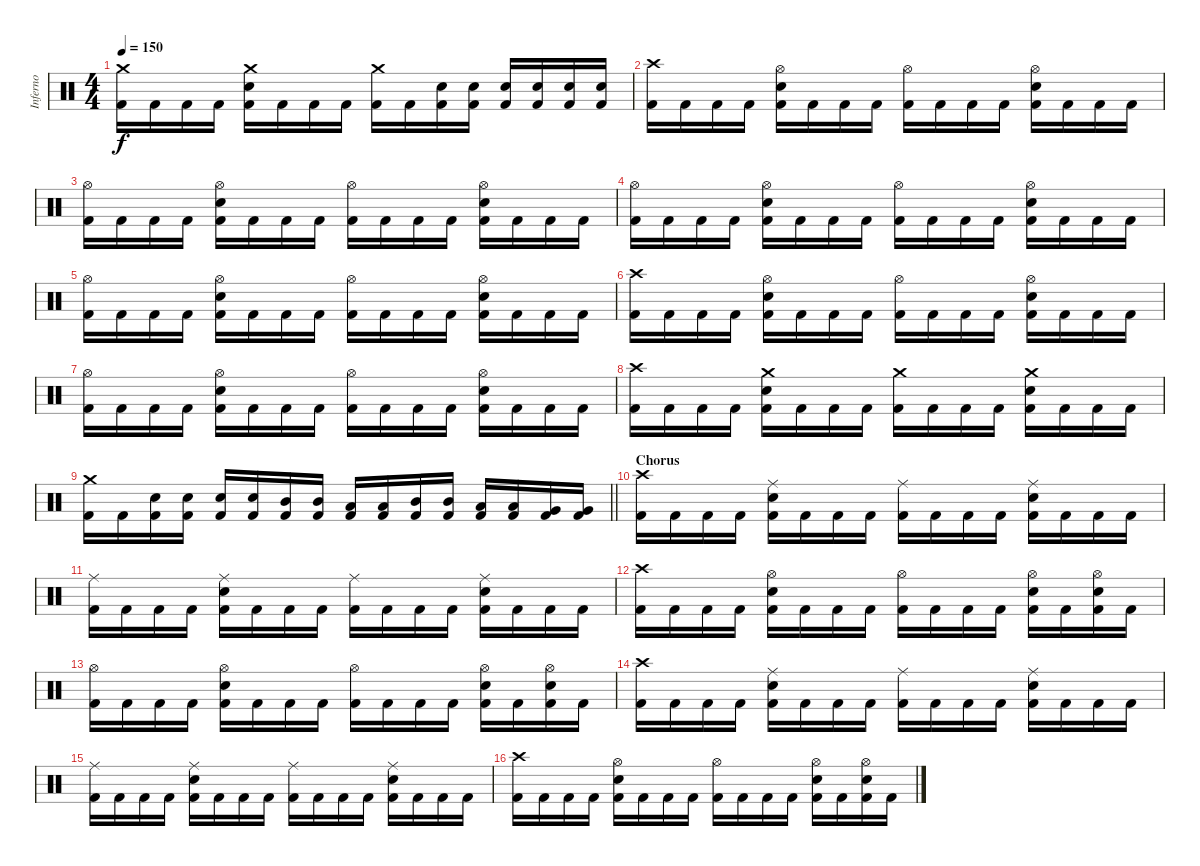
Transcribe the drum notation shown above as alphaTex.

\track ("Inferno" "Inferno") {instrument percussion}
\staff {score}
\articulation defaults
\ts (4 4)
\tempo 150
\clef neutral
\ks c
("Crash medium (hit)" "Kick (hit) 2").16{dy f} "Kick (hit) 2".16 "Kick (hit) 2".16 "Kick (hit) 2".16 ("Crash medium (hit)" "Electric Snare (hit)" "Kick (hit) 2").16 "Kick (hit) 2".16 "Kick (hit) 2".16 "Kick (hit) 2".16 ("Crash medium (hit)" "Kick (hit) 2").16 "Kick (hit) 2".16 ("Electric Snare (hit)" "Kick (hit) 2").16 ("Electric Snare (hit)" "Kick (hit) 2").16 ("Electric Snare (hit)" "Kick (hit) 2").16 ("Electric Snare (hit)" "Kick (hit) 2").16 ("Electric Snare (hit)" "Kick (hit) 2").16 ("Electric Snare (hit)" "Kick (hit) 2").16 |
("Crash high (hit)" "Kick (hit) 2").16 "Kick (hit) 2".16 "Kick (hit) 2".16 "Kick (hit) 2".16 ("Hi-Hat (open)" "Electric Snare (hit)" "Kick (hit) 2").16 "Kick (hit) 2".16 "Kick (hit) 2".16 "Kick (hit) 2".16 ("Hi-Hat (open)" "Kick (hit) 2").16 "Kick (hit) 2".16 "Kick (hit) 2".16 "Kick (hit) 2".16 ("Hi-Hat (open)" "Electric Snare (hit)" "Kick (hit) 2").16 "Kick (hit) 2".16 "Kick (hit) 2".16 "Kick (hit) 2".16 |
("Hi-Hat (open)" "Kick (hit) 2").16 "Kick (hit) 2".16 "Kick (hit) 2".16 "Kick (hit) 2".16 ("Hi-Hat (open)" "Electric Snare (hit)" "Kick (hit) 2").16 "Kick (hit) 2".16 "Kick (hit) 2".16 "Kick (hit) 2".16 ("Hi-Hat (open)" "Kick (hit) 2").16 "Kick (hit) 2".16 "Kick (hit) 2".16 "Kick (hit) 2".16 ("Hi-Hat (open)" "Electric Snare (hit)" "Kick (hit) 2").16 "Kick (hit) 2".16 "Kick (hit) 2".16 "Kick (hit) 2".16 |
("Hi-Hat (open)" "Kick (hit) 2").16 "Kick (hit) 2".16 "Kick (hit) 2".16 "Kick (hit) 2".16 ("Hi-Hat (open)" "Electric Snare (hit)" "Kick (hit) 2").16 "Kick (hit) 2".16 "Kick (hit) 2".16 "Kick (hit) 2".16 ("Hi-Hat (open)" "Kick (hit) 2").16 "Kick (hit) 2".16 "Kick (hit) 2".16 "Kick (hit) 2".16 ("Hi-Hat (open)" "Electric Snare (hit)" "Kick (hit) 2").16 "Kick (hit) 2".16 "Kick (hit) 2".16 "Kick (hit) 2".16 |
("Hi-Hat (open)" "Kick (hit) 2").16 "Kick (hit) 2".16 "Kick (hit) 2".16 "Kick (hit) 2".16 ("Hi-Hat (open)" "Electric Snare (hit)" "Kick (hit) 2").16 "Kick (hit) 2".16 "Kick (hit) 2".16 "Kick (hit) 2".16 ("Hi-Hat (open)" "Kick (hit) 2").16 "Kick (hit) 2".16 "Kick (hit) 2".16 "Kick (hit) 2".16 ("Hi-Hat (open)" "Electric Snare (hit)" "Kick (hit) 2").16 "Kick (hit) 2".16 "Kick (hit) 2".16 "Kick (hit) 2".16 |
("Crash high (hit)" "Kick (hit) 2").16 "Kick (hit) 2".16 "Kick (hit) 2".16 "Kick (hit) 2".16 ("Hi-Hat (open)" "Electric Snare (hit)" "Kick (hit) 2").16 "Kick (hit) 2".16 "Kick (hit) 2".16 "Kick (hit) 2".16 ("Hi-Hat (open)" "Kick (hit) 2").16 "Kick (hit) 2".16 "Kick (hit) 2".16 "Kick (hit) 2".16 ("Hi-Hat (open)" "Electric Snare (hit)" "Kick (hit) 2").16 "Kick (hit) 2".16 "Kick (hit) 2".16 "Kick (hit) 2".16 |
("Hi-Hat (open)" "Kick (hit) 2").16 "Kick (hit) 2".16 "Kick (hit) 2".16 "Kick (hit) 2".16 ("Hi-Hat (open)" "Electric Snare (hit)" "Kick (hit) 2").16 "Kick (hit) 2".16 "Kick (hit) 2".16 "Kick (hit) 2".16 ("Hi-Hat (open)" "Kick (hit) 2").16 "Kick (hit) 2".16 "Kick (hit) 2".16 "Kick (hit) 2".16 ("Hi-Hat (open)" "Electric Snare (hit)" "Kick (hit) 2").16 "Kick (hit) 2".16 "Kick (hit) 2".16 "Kick (hit) 2".16 |
("Crash high (hit)" "Kick (hit) 2").16 "Kick (hit) 2".16 "Kick (hit) 2".16 "Kick (hit) 2".16 ("Crash medium (hit)" "Electric Snare (hit)" "Kick (hit) 2").16 "Kick (hit) 2".16 "Kick (hit) 2".16 "Kick (hit) 2".16 ("Crash medium (hit)" "Kick (hit) 2").16 "Kick (hit) 2".16 "Kick (hit) 2".16 "Kick (hit) 2".16 ("Crash medium (hit)" "Electric Snare (hit)" "Kick (hit) 2").16 "Kick (hit) 2".16 "Kick (hit) 2".16 "Kick (hit) 2".16 |
\barLineRight lightlight
("Crash medium (hit)" "Kick (hit) 2").16 "Kick (hit) 2".16 ("Electric Snare (hit)" "Kick (hit) 2").16 ("Electric Snare (hit)" "Kick (hit) 2").16 ("Electric Snare (hit)" "Kick (hit) 2").16 ("Electric Snare (hit)" "Kick (hit) 2").16 ("Mid Tom (hit)" "Kick (hit) 2").16 ("Mid Tom (hit)" "Kick (hit) 2").16 ("Low Tom (hit)" "Kick (hit) 2").16 ("Low Tom (hit)" "Kick (hit) 2").16 ("Mid Tom (hit)" "Kick (hit) 2").16 ("Mid Tom (hit)" "Kick (hit) 2").16 ("Low Tom (hit)" "Kick (hit) 2").16 ("Low Tom (hit)" "Kick (hit) 2").16 ("Very Low Tom (hit)" "Kick (hit) 2").16 ("Very Low Tom (hit)" "Kick (hit) 2").16 |
\section ("" "Chorus")
("Crash high (hit)" "Kick (hit) 2").16 "Kick (hit) 2".16 "Kick (hit) 2".16 "Kick (hit) 2".16 ("Ride (middle)" "Electric Snare (hit)" "Kick (hit) 2").16 "Kick (hit) 2".16 "Kick (hit) 2".16 "Kick (hit) 2".16 ("Ride (middle)" "Kick (hit) 2").16 "Kick (hit) 2".16 "Kick (hit) 2".16 "Kick (hit) 2".16 ("Ride (middle)" "Electric Snare (hit)" "Kick (hit) 2").16 "Kick (hit) 2".16 "Kick (hit) 2".16 "Kick (hit) 2".16 |
("Ride (middle)" "Kick (hit) 2").16 "Kick (hit) 2".16 "Kick (hit) 2".16 "Kick (hit) 2".16 ("Ride (middle)" "Electric Snare (hit)" "Kick (hit) 2").16 "Kick (hit) 2".16 "Kick (hit) 2".16 "Kick (hit) 2".16 ("Ride (middle)" "Kick (hit) 2").16 "Kick (hit) 2".16 "Kick (hit) 2".16 "Kick (hit) 2".16 ("Ride (middle)" "Electric Snare (hit)" "Kick (hit) 2").16 "Kick (hit) 2".16 "Kick (hit) 2".16 "Kick (hit) 2".16 |
("Crash high (hit)" "Kick (hit) 2").16 "Kick (hit) 2".16 "Kick (hit) 2".16 "Kick (hit) 2".16 ("Hi-Hat (open)" "Electric Snare (hit)" "Kick (hit) 2").16 "Kick (hit) 2".16 "Kick (hit) 2".16 "Kick (hit) 2".16 ("Hi-Hat (open)" "Kick (hit) 2").16 "Kick (hit) 2".16 "Kick (hit) 2".16 "Kick (hit) 2".16 ("Hi-Hat (open)" "Electric Snare (hit)" "Kick (hit) 2").16 "Kick (hit) 2".16 ("Hi-Hat (open)" "Electric Snare (hit)" "Kick (hit) 2").16 "Kick (hit) 2".16 |
("Hi-Hat (open)" "Kick (hit) 2").16 "Kick (hit) 2".16 "Kick (hit) 2".16 "Kick (hit) 2".16 ("Hi-Hat (open)" "Electric Snare (hit)" "Kick (hit) 2").16 "Kick (hit) 2".16 "Kick (hit) 2".16 "Kick (hit) 2".16 ("Hi-Hat (open)" "Kick (hit) 2").16 "Kick (hit) 2".16 "Kick (hit) 2".16 "Kick (hit) 2".16 ("Hi-Hat (open)" "Electric Snare (hit)" "Kick (hit) 2").16 "Kick (hit) 2".16 ("Hi-Hat (open)" "Electric Snare (hit)" "Kick (hit) 2").16 "Kick (hit) 2".16 |
("Crash high (hit)" "Kick (hit) 2").16 "Kick (hit) 2".16 "Kick (hit) 2".16 "Kick (hit) 2".16 ("Ride (middle)" "Electric Snare (hit)" "Kick (hit) 2").16 "Kick (hit) 2".16 "Kick (hit) 2".16 "Kick (hit) 2".16 ("Ride (middle)" "Kick (hit) 2").16 "Kick (hit) 2".16 "Kick (hit) 2".16 "Kick (hit) 2".16 ("Ride (middle)" "Electric Snare (hit)" "Kick (hit) 2").16 "Kick (hit) 2".16 "Kick (hit) 2".16 "Kick (hit) 2".16 |
("Ride (middle)" "Kick (hit) 2").16 "Kick (hit) 2".16 "Kick (hit) 2".16 "Kick (hit) 2".16 ("Ride (middle)" "Electric Snare (hit)" "Kick (hit) 2").16 "Kick (hit) 2".16 "Kick (hit) 2".16 "Kick (hit) 2".16 ("Ride (middle)" "Kick (hit) 2").16 "Kick (hit) 2".16 "Kick (hit) 2".16 "Kick (hit) 2".16 ("Ride (middle)" "Electric Snare (hit)" "Kick (hit) 2").16 "Kick (hit) 2".16 "Kick (hit) 2".16 "Kick (hit) 2".16 |
("Crash high (hit)" "Kick (hit) 2").16 "Kick (hit) 2".16 "Kick (hit) 2".16 "Kick (hit) 2".16 ("Hi-Hat (open)" "Electric Snare (hit)" "Kick (hit) 2").16 "Kick (hit) 2".16 "Kick (hit) 2".16 "Kick (hit) 2".16 ("Hi-Hat (open)" "Kick (hit) 2").16 "Kick (hit) 2".16 "Kick (hit) 2".16 "Kick (hit) 2".16 ("Hi-Hat (open)" "Electric Snare (hit)" "Kick (hit) 2").16 "Kick (hit) 2".16 ("Hi-Hat (open)" "Electric Snare (hit)" "Kick (hit) 2").16 "Kick (hit) 2".16
